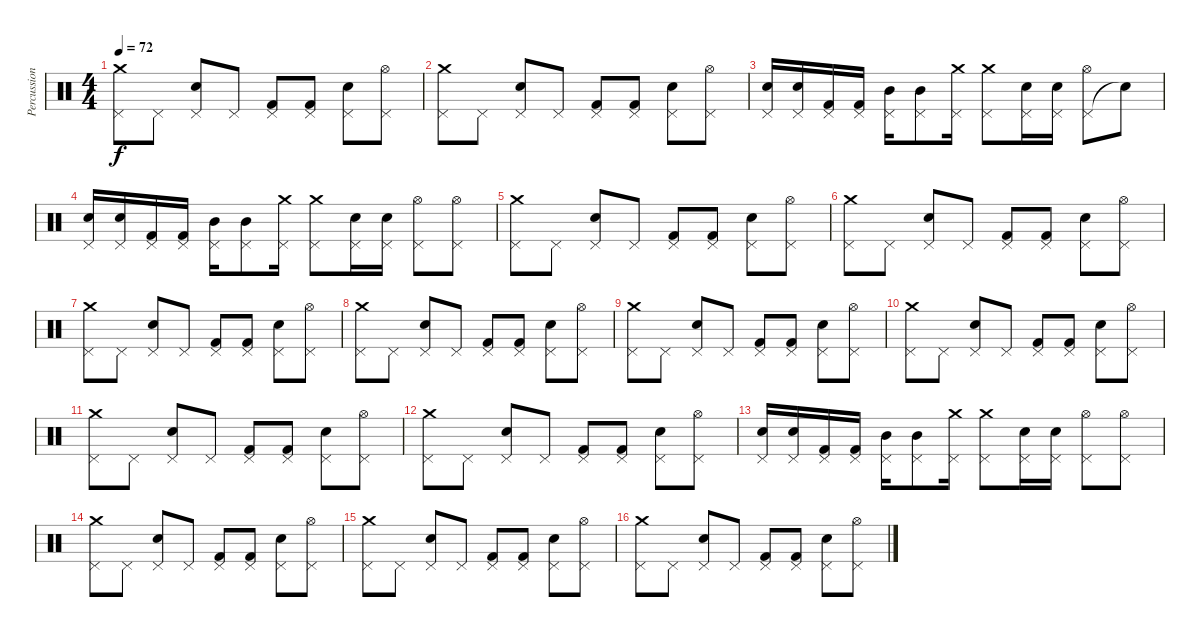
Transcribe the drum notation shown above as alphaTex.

\track ("Percussion" "Percussion") {instrument percussion}
\staff {score}
\articulation defaults
\ts (4 4)
\tempo 72
\clef neutral
\ks c
("Pedal Hi-Hat (hit)" "Crash medium (hit)").8{dy f} "Pedal Hi-Hat (hit)".8 ("Pedal Hi-Hat (hit)" "Snare (hit) 2").8 "Pedal Hi-Hat (hit)".8 ("Pedal Hi-Hat (hit)" "Kick (hit) 2").8 ("Pedal Hi-Hat (hit)" "Kick (hit) 2").8 ("Pedal Hi-Hat (hit)" "Snare (hit) 2").8 ("Pedal Hi-Hat (hit)" "Hi-Hat (open)").8 |
("Pedal Hi-Hat (hit)" "Crash medium (hit)").8 "Pedal Hi-Hat (hit)".8 ("Pedal Hi-Hat (hit)" "Snare (hit) 2").8 "Pedal Hi-Hat (hit)".8 ("Pedal Hi-Hat (hit)" "Kick (hit) 2").8 ("Pedal Hi-Hat (hit)" "Kick (hit) 2").8 ("Pedal Hi-Hat (hit)" "Snare (hit) 2").8 ("Pedal Hi-Hat (hit)" "Hi-Hat (open)").8 |
("Pedal Hi-Hat (hit)" "Snare (hit) 2").16 ("Pedal Hi-Hat (hit)" "Snare (hit) 2").16 ("Pedal Hi-Hat (hit)" "Kick (hit) 2").16 ("Pedal Hi-Hat (hit)" "Kick (hit) 2").16 ("Pedal Hi-Hat (hit)" "Mid Tom (hit)").16 ("Pedal Hi-Hat (hit)" "Mid Tom (hit)").8 ("Pedal Hi-Hat (hit)" "Crash medium (hit)").16 ("Pedal Hi-Hat (hit)" "Crash medium (hit)").8 ("Pedal Hi-Hat (hit)" "Snare (hit) 2").16 ("Pedal Hi-Hat (hit)" "Snare (hit) 2").16 ("Pedal Hi-Hat (hit)" "Hi-Hat (open)").8 "Snare (hit)"{t}.8 |
("Pedal Hi-Hat (hit)" "Snare (hit) 2").16 ("Pedal Hi-Hat (hit)" "Snare (hit) 2").16 ("Pedal Hi-Hat (hit)" "Kick (hit) 2").16 ("Pedal Hi-Hat (hit)" "Kick (hit) 2").16 ("Pedal Hi-Hat (hit)" "Mid Tom (hit)").16 ("Pedal Hi-Hat (hit)" "Mid Tom (hit)").8 ("Pedal Hi-Hat (hit)" "Crash medium (hit)").16 ("Pedal Hi-Hat (hit)" "Crash medium (hit)").8 ("Pedal Hi-Hat (hit)" "Snare (hit) 2").16 ("Pedal Hi-Hat (hit)" "Snare (hit) 2").16 ("Pedal Hi-Hat (hit)" "Hi-Hat (open)").8 ("Pedal Hi-Hat (hit)" "Hi-Hat (open)").8 |
("Pedal Hi-Hat (hit)" "Crash medium (hit)").8 "Pedal Hi-Hat (hit)".8 ("Pedal Hi-Hat (hit)" "Snare (hit) 2").8 "Pedal Hi-Hat (hit)".8 ("Pedal Hi-Hat (hit)" "Kick (hit) 2").8 ("Pedal Hi-Hat (hit)" "Kick (hit) 2").8 ("Pedal Hi-Hat (hit)" "Snare (hit) 2").8 ("Pedal Hi-Hat (hit)" "Hi-Hat (open)").8 |
("Pedal Hi-Hat (hit)" "Crash medium (hit)").8 "Pedal Hi-Hat (hit)".8 ("Pedal Hi-Hat (hit)" "Snare (hit) 2").8 "Pedal Hi-Hat (hit)".8 ("Pedal Hi-Hat (hit)" "Kick (hit) 2").8 ("Pedal Hi-Hat (hit)" "Kick (hit) 2").8 ("Pedal Hi-Hat (hit)" "Snare (hit) 2").8 ("Pedal Hi-Hat (hit)" "Hi-Hat (open)").8 |
("Pedal Hi-Hat (hit)" "Crash medium (hit)").8 "Pedal Hi-Hat (hit)".8 ("Pedal Hi-Hat (hit)" "Snare (hit) 2").8 "Pedal Hi-Hat (hit)".8 ("Pedal Hi-Hat (hit)" "Kick (hit) 2").8 ("Pedal Hi-Hat (hit)" "Kick (hit) 2").8 ("Pedal Hi-Hat (hit)" "Snare (hit) 2").8 ("Pedal Hi-Hat (hit)" "Hi-Hat (open)").8 |
("Pedal Hi-Hat (hit)" "Crash medium (hit)").8 "Pedal Hi-Hat (hit)".8 ("Pedal Hi-Hat (hit)" "Snare (hit) 2").8 "Pedal Hi-Hat (hit)".8 ("Pedal Hi-Hat (hit)" "Kick (hit) 2").8 ("Pedal Hi-Hat (hit)" "Kick (hit) 2").8 ("Pedal Hi-Hat (hit)" "Snare (hit) 2").8 ("Pedal Hi-Hat (hit)" "Hi-Hat (open)").8 |
("Pedal Hi-Hat (hit)" "Crash medium (hit)").8 "Pedal Hi-Hat (hit)".8 ("Pedal Hi-Hat (hit)" "Snare (hit) 2").8 "Pedal Hi-Hat (hit)".8 ("Pedal Hi-Hat (hit)" "Kick (hit) 2").8 ("Pedal Hi-Hat (hit)" "Kick (hit) 2").8 ("Pedal Hi-Hat (hit)" "Snare (hit) 2").8 ("Pedal Hi-Hat (hit)" "Hi-Hat (open)").8 |
("Pedal Hi-Hat (hit)" "Crash medium (hit)").8 "Pedal Hi-Hat (hit)".8 ("Pedal Hi-Hat (hit)" "Snare (hit) 2").8 "Pedal Hi-Hat (hit)".8 ("Pedal Hi-Hat (hit)" "Kick (hit) 2").8 ("Pedal Hi-Hat (hit)" "Kick (hit) 2").8 ("Pedal Hi-Hat (hit)" "Snare (hit) 2").8 ("Pedal Hi-Hat (hit)" "Hi-Hat (open)").8 |
("Pedal Hi-Hat (hit)" "Crash medium (hit)").8 "Pedal Hi-Hat (hit)".8 ("Pedal Hi-Hat (hit)" "Snare (hit) 2").8 "Pedal Hi-Hat (hit)".8 ("Pedal Hi-Hat (hit)" "Kick (hit) 2").8 ("Pedal Hi-Hat (hit)" "Kick (hit) 2").8 ("Pedal Hi-Hat (hit)" "Snare (hit) 2").8 ("Pedal Hi-Hat (hit)" "Hi-Hat (open)").8 |
("Pedal Hi-Hat (hit)" "Crash medium (hit)").8 "Pedal Hi-Hat (hit)".8 ("Pedal Hi-Hat (hit)" "Snare (hit) 2").8 "Pedal Hi-Hat (hit)".8 ("Pedal Hi-Hat (hit)" "Kick (hit) 2").8 ("Pedal Hi-Hat (hit)" "Kick (hit) 2").8 ("Pedal Hi-Hat (hit)" "Snare (hit) 2").8 ("Pedal Hi-Hat (hit)" "Hi-Hat (open)").8 |
("Pedal Hi-Hat (hit)" "Snare (hit) 2").16 ("Pedal Hi-Hat (hit)" "Snare (hit) 2").16 ("Pedal Hi-Hat (hit)" "Kick (hit) 2").16 ("Pedal Hi-Hat (hit)" "Kick (hit) 2").16 ("Pedal Hi-Hat (hit)" "Mid Tom (hit)").16 ("Pedal Hi-Hat (hit)" "Mid Tom (hit)").8 ("Pedal Hi-Hat (hit)" "Crash medium (hit)").16 ("Pedal Hi-Hat (hit)" "Crash medium (hit)").8 ("Pedal Hi-Hat (hit)" "Snare (hit) 2").16 ("Pedal Hi-Hat (hit)" "Snare (hit) 2").16 ("Pedal Hi-Hat (hit)" "Hi-Hat (open)").8 ("Pedal Hi-Hat (hit)" "Hi-Hat (open)").8 |
("Pedal Hi-Hat (hit)" "Crash medium (hit)").8 "Pedal Hi-Hat (hit)".8 ("Pedal Hi-Hat (hit)" "Snare (hit) 2").8 "Pedal Hi-Hat (hit)".8 ("Pedal Hi-Hat (hit)" "Kick (hit) 2").8 ("Pedal Hi-Hat (hit)" "Kick (hit) 2").8 ("Pedal Hi-Hat (hit)" "Snare (hit) 2").8 ("Pedal Hi-Hat (hit)" "Hi-Hat (open)").8 |
("Pedal Hi-Hat (hit)" "Crash medium (hit)").8 "Pedal Hi-Hat (hit)".8 ("Pedal Hi-Hat (hit)" "Snare (hit) 2").8 "Pedal Hi-Hat (hit)".8 ("Pedal Hi-Hat (hit)" "Kick (hit) 2").8 ("Pedal Hi-Hat (hit)" "Kick (hit) 2").8 ("Pedal Hi-Hat (hit)" "Snare (hit) 2").8 ("Pedal Hi-Hat (hit)" "Hi-Hat (open)").8 |
("Pedal Hi-Hat (hit)" "Crash medium (hit)").8 "Pedal Hi-Hat (hit)".8 ("Pedal Hi-Hat (hit)" "Snare (hit) 2").8 "Pedal Hi-Hat (hit)".8 ("Pedal Hi-Hat (hit)" "Kick (hit) 2").8 ("Pedal Hi-Hat (hit)" "Kick (hit) 2").8 ("Pedal Hi-Hat (hit)" "Snare (hit) 2").8 ("Pedal Hi-Hat (hit)" "Hi-Hat (open)").8
